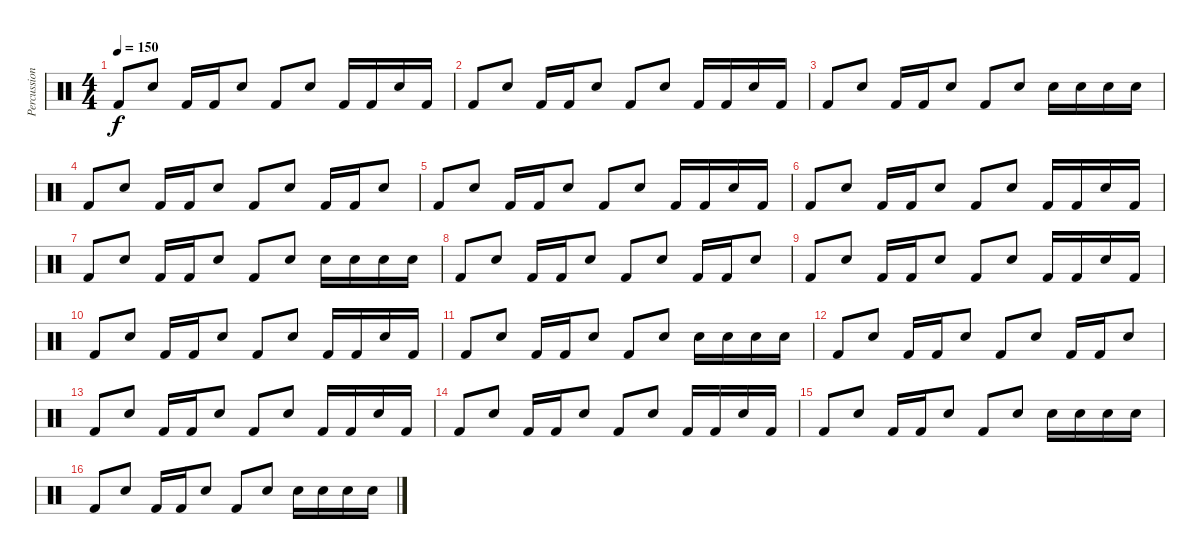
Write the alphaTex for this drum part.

\track ("Percussion" "Percussion") {instrument percussion}
\staff {score}
\articulation defaults
\ts (4 4)
\tempo 150
\clef neutral
\ks c "Kick (hit) 2".8{dy f} "Snare (hit) 2".8 "Kick (hit) 2".16 "Kick (hit) 2".16 "Snare (hit) 2".8 "Kick (hit) 2".8 "Snare (hit) 2".8 "Kick (hit) 2".16 "Kick (hit) 2".16 "Snare (hit) 2".16 "Kick (hit) 2".16
|
"Kick (hit) 2".8 "Snare (hit) 2".8 "Kick (hit) 2".16 "Kick (hit) 2".16 "Snare (hit) 2".8 "Kick (hit) 2".8 "Snare (hit) 2".8 "Kick (hit) 2".16 "Kick (hit) 2".16 "Snare (hit) 2".16 "Kick (hit) 2".16 |
"Kick (hit) 2".8 "Snare (hit) 2".8 "Kick (hit) 2".16 "Kick (hit) 2".16 "Snare (hit) 2".8 "Kick (hit) 2".8 "Snare (hit) 2".8 "Snare (hit) 2".16 "Snare (hit) 2".16 "Snare (hit) 2".16 "Snare (hit) 2".16 |
"Kick (hit) 2".8 "Snare (hit) 2".8 "Kick (hit) 2".16 "Kick (hit) 2".16 "Snare (hit) 2".8 "Kick (hit) 2".8 "Snare (hit) 2".8 "Kick (hit) 2".16 "Kick (hit) 2".16 "Snare (hit) 2".8 |
"Kick (hit) 2".8 "Snare (hit) 2".8 "Kick (hit) 2".16 "Kick (hit) 2".16 "Snare (hit) 2".8 "Kick (hit) 2".8 "Snare (hit) 2".8 "Kick (hit) 2".16 "Kick (hit) 2".16 "Snare (hit) 2".16 "Kick (hit) 2".16 |
"Kick (hit) 2".8 "Snare (hit) 2".8 "Kick (hit) 2".16 "Kick (hit) 2".16 "Snare (hit) 2".8 "Kick (hit) 2".8 "Snare (hit) 2".8 "Kick (hit) 2".16 "Kick (hit) 2".16 "Snare (hit) 2".16 "Kick (hit) 2".16 |
"Kick (hit) 2".8 "Snare (hit) 2".8 "Kick (hit) 2".16 "Kick (hit) 2".16 "Snare (hit) 2".8 "Kick (hit) 2".8 "Snare (hit) 2".8 "Snare (hit) 2".16 "Snare (hit) 2".16 "Snare (hit) 2".16 "Snare (hit) 2".16 |
"Kick (hit) 2".8 "Snare (hit) 2".8 "Kick (hit) 2".16 "Kick (hit) 2".16 "Snare (hit) 2".8 "Kick (hit) 2".8 "Snare (hit) 2".8 "Kick (hit) 2".16 "Kick (hit) 2".16 "Snare (hit) 2".8 |
"Kick (hit) 2".8 "Snare (hit) 2".8 "Kick (hit) 2".16 "Kick (hit) 2".16 "Snare (hit) 2".8 "Kick (hit) 2".8 "Snare (hit) 2".8 "Kick (hit) 2".16 "Kick (hit) 2".16 "Snare (hit) 2".16 "Kick (hit) 2".16 |
"Kick (hit) 2".8 "Snare (hit) 2".8 "Kick (hit) 2".16 "Kick (hit) 2".16 "Snare (hit) 2".8 "Kick (hit) 2".8 "Snare (hit) 2".8 "Kick (hit) 2".16 "Kick (hit) 2".16 "Snare (hit) 2".16 "Kick (hit) 2".16 |
"Kick (hit) 2".8 "Snare (hit) 2".8 "Kick (hit) 2".16 "Kick (hit) 2".16 "Snare (hit) 2".8 "Kick (hit) 2".8 "Snare (hit) 2".8 "Snare (hit) 2".16 "Snare (hit) 2".16 "Snare (hit) 2".16 "Snare (hit) 2".16 |
"Kick (hit) 2".8 "Snare (hit) 2".8 "Kick (hit) 2".16 "Kick (hit) 2".16 "Snare (hit) 2".8 "Kick (hit) 2".8 "Snare (hit) 2".8 "Kick (hit) 2".16 "Kick (hit) 2".16 "Snare (hit) 2".8 |
"Kick (hit) 2".8 "Snare (hit) 2".8 "Kick (hit) 2".16 "Kick (hit) 2".16 "Snare (hit) 2".8 "Kick (hit) 2".8 "Snare (hit) 2".8 "Kick (hit) 2".16 "Kick (hit) 2".16 "Snare (hit) 2".16 "Kick (hit) 2".16 |
"Kick (hit) 2".8 "Snare (hit) 2".8 "Kick (hit) 2".16 "Kick (hit) 2".16 "Snare (hit) 2".8 "Kick (hit) 2".8 "Snare (hit) 2".8 "Kick (hit) 2".16 "Kick (hit) 2".16 "Snare (hit) 2".16 "Kick (hit) 2".16 |
"Kick (hit) 2".8 "Snare (hit) 2".8 "Kick (hit) 2".16 "Kick (hit) 2".16 "Snare (hit) 2".8 "Kick (hit) 2".8 "Snare (hit) 2".8 "Snare (hit) 2".16 "Snare (hit) 2".16 "Snare (hit) 2".16 "Snare (hit) 2".16 |
"Kick (hit) 2".8 "Snare (hit) 2".8 "Kick (hit) 2".16 "Kick (hit) 2".16 "Snare (hit) 2".8 "Kick (hit) 2".8 "Snare (hit) 2".8 "Snare (hit) 2".16 "Snare (hit) 2".16 "Snare (hit) 2".16 "Snare (hit) 2".16
